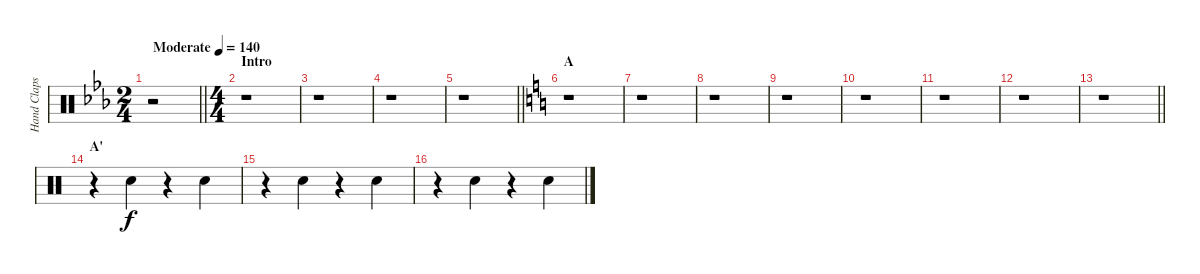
\track ("Hand Claps" "Hand Claps") {instrument percussion}
\staff {score}
\articulation defaults
\ts (2 4)
\tempo (140 "Moderate")
\clef neutral
\barLineRight lightlight
\ks eb
r.2{dy f} |
\ts (4 4)
\section ("" "Intro")
r.1 |
r.1 |
r.1 |
\barLineRight lightlight
r.1 |
\section ("" "A")
\ks c
r.1 |
r.1 |
r.1 |
r.1 |
r.1 |
r.1 |
r.1 |
\barLineRight lightlight
r.1 |
\section ("" "A'")
r.4 "Hand Clap (hit)".4 r.4 "Hand Clap (hit)".4 |
r.4 "Hand Clap (hit)".4 r.4 "Hand Clap (hit)".4 |
r.4 "Hand Clap (hit)".4 r.4 "Hand Clap (hit)".4
